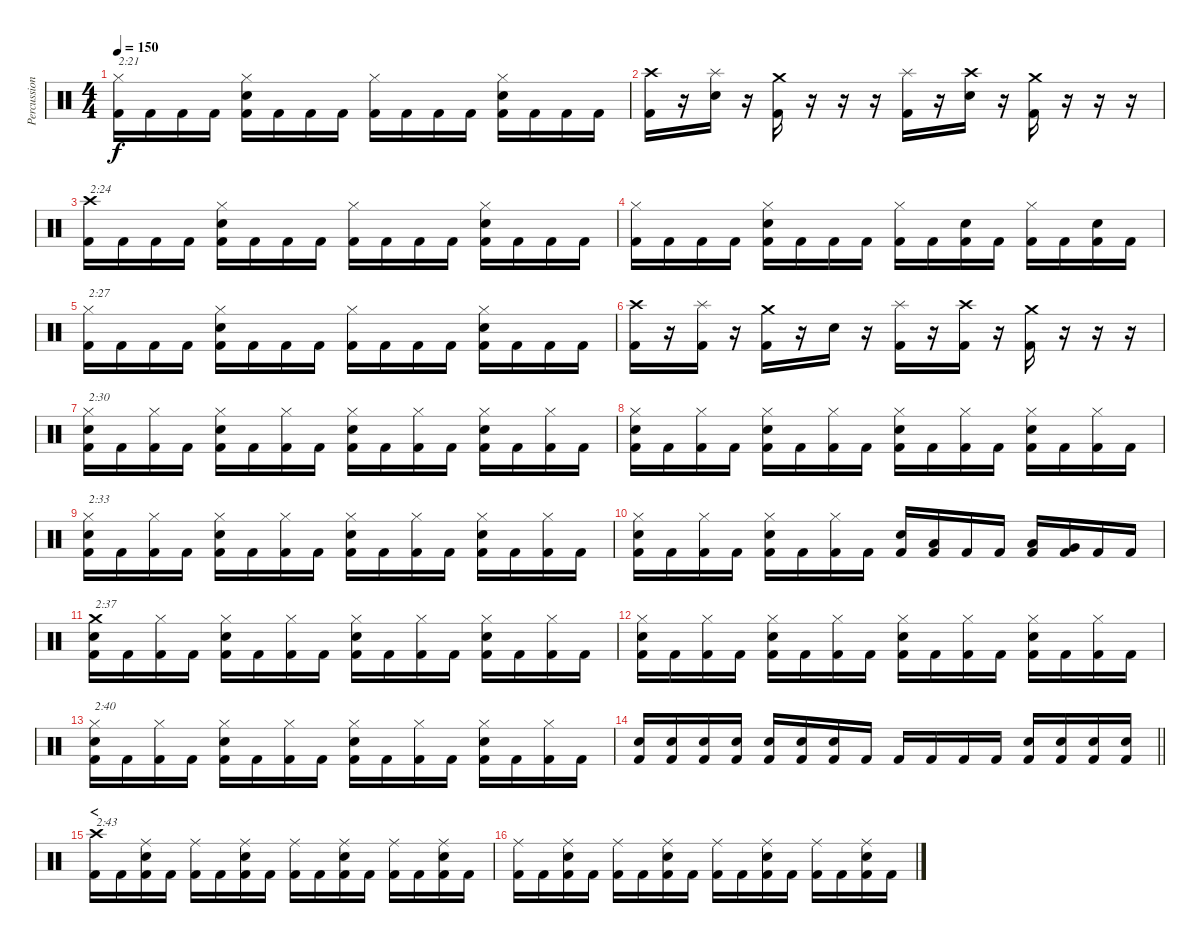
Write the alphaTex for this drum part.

\track ("Percussion" "Percussion") {instrument percussion}
\staff {score}
\articulation defaults
\ts (4 4)
\tempo 150
\clef neutral
\ks c
("Hi-Hat (closed)" "Kick (hit) 2").16{txt "2:21" dy f} "Kick (hit) 2".16 "Kick (hit) 2".16 "Kick (hit) 2".16 ("Hi-Hat (closed)" "Electric Snare (hit)" "Kick (hit) 2").16 "Kick (hit) 2".16 "Kick (hit) 2".16 "Kick (hit) 2".16 ("Hi-Hat (closed)" "Kick (hit) 2").16 "Kick (hit) 2".16 "Kick (hit) 2".16 "Kick (hit) 2".16 ("Hi-Hat (closed)" "Electric Snare (hit)" "Kick (hit) 2").16 "Kick (hit) 2".16 "Kick (hit) 2".16 "Kick (hit) 2".16 |
("Crash high (hit)" "Kick (hit) 2").16 r.16 ("Splash (hit)" "Electric Snare (hit)").16 r.16 ("Crash medium (hit)" "Kick (hit) 2").16 r.16 r.16 r.16 ("Splash (hit)" "Kick (hit) 2").16 r.16 ("Crash high (hit)" "Electric Snare (hit)").16 r.16 ("Crash medium (hit)" "Kick (hit) 2").16 r.16 r.16 r.16 |
("Crash high (hit)" "Kick (hit) 2").16{txt "2:24"} "Kick (hit) 2".16 "Kick (hit) 2".16 "Kick (hit) 2".16 ("Hi-Hat (closed)" "Electric Snare (hit)" "Kick (hit) 2").16 "Kick (hit) 2".16 "Kick (hit) 2".16 "Kick (hit) 2".16 ("Hi-Hat (closed)" "Kick (hit) 2").16 "Kick (hit) 2".16 "Kick (hit) 2".16 "Kick (hit) 2".16 ("Hi-Hat (closed)" "Electric Snare (hit)" "Kick (hit) 2").16 "Kick (hit) 2".16 "Kick (hit) 2".16 "Kick (hit) 2".16 |
("Hi-Hat (closed)" "Kick (hit) 2").16 "Kick (hit) 2".16 "Kick (hit) 2".16 "Kick (hit) 2".16 ("Hi-Hat (closed)" "Electric Snare (hit)" "Kick (hit) 2").16 "Kick (hit) 2".16 "Kick (hit) 2".16 "Kick (hit) 2".16 ("Hi-Hat (closed)" "Kick (hit) 2").16 "Kick (hit) 2".16 ("Electric Snare (hit)" "Kick (hit) 2").16 "Kick (hit) 2".16 ("Hi-Hat (closed)" "Kick (hit) 2").16 "Kick (hit) 2".16 ("Electric Snare (hit)" "Kick (hit) 2").16 "Kick (hit) 2".16 |
("Hi-Hat (closed)" "Kick (hit) 2").16{txt "2:27"} "Kick (hit) 2".16 "Kick (hit) 2".16 "Kick (hit) 2".16 ("Hi-Hat (closed)" "Electric Snare (hit)" "Kick (hit) 2").16 "Kick (hit) 2".16 "Kick (hit) 2".16 "Kick (hit) 2".16 ("Hi-Hat (closed)" "Kick (hit) 2").16 "Kick (hit) 2".16 "Kick (hit) 2".16 "Kick (hit) 2".16 ("Hi-Hat (closed)" "Electric Snare (hit)" "Kick (hit) 2").16 "Kick (hit) 2".16 "Kick (hit) 2".16 "Kick (hit) 2".16 |
("Crash high (hit)" "Kick (hit) 2").16 r.16 ("Splash (hit)" "Kick (hit) 2").16 r.16 ("Crash medium (hit)" "Kick (hit) 2").16 r.16 "Electric Snare (hit)".16 r.16 ("Splash (hit)" "Kick (hit) 2").16 r.16 ("Crash high (hit)" "Kick (hit) 2").16 r.16 ("Crash medium (hit)" "Kick (hit) 2").16 r.16 r.16 r.16 |
("Hi-Hat (closed)" "Electric Snare (hit)" "Kick (hit) 2").16{txt "2:30"} "Kick (hit) 2".16 ("Hi-Hat (closed)" "Kick (hit) 2").16 "Kick (hit) 2".16 ("Hi-Hat (closed)" "Electric Snare (hit)" "Kick (hit) 2").16 "Kick (hit) 2".16 ("Hi-Hat (closed)" "Kick (hit) 2").16 "Kick (hit) 2".16 ("Hi-Hat (closed)" "Electric Snare (hit)" "Kick (hit) 2").16 "Kick (hit) 2".16 ("Hi-Hat (closed)" "Kick (hit) 2").16 "Kick (hit) 2".16 ("Hi-Hat (closed)" "Electric Snare (hit)" "Kick (hit) 2").16 "Kick (hit) 2".16 ("Hi-Hat (closed)" "Kick (hit) 2").16 "Kick (hit) 2".16 |
("Hi-Hat (closed)" "Electric Snare (hit)" "Kick (hit) 2").16 "Kick (hit) 2".16 ("Hi-Hat (closed)" "Kick (hit) 2").16 "Kick (hit) 2".16 ("Hi-Hat (closed)" "Electric Snare (hit)" "Kick (hit) 2").16 "Kick (hit) 2".16 ("Hi-Hat (closed)" "Kick (hit) 2").16 "Kick (hit) 2".16 ("Hi-Hat (closed)" "Electric Snare (hit)" "Kick (hit) 2").16 "Kick (hit) 2".16 ("Hi-Hat (closed)" "Kick (hit) 2").16 "Kick (hit) 2".16 ("Hi-Hat (closed)" "Electric Snare (hit)" "Kick (hit) 2").16 "Kick (hit) 2".16 ("Hi-Hat (closed)" "Kick (hit) 2").16 "Kick (hit) 2".16 |
("Hi-Hat (closed)" "Electric Snare (hit)" "Kick (hit) 2").16{txt "2:33"} "Kick (hit) 2".16 ("Hi-Hat (closed)" "Kick (hit) 2").16 "Kick (hit) 2".16 ("Hi-Hat (closed)" "Electric Snare (hit)" "Kick (hit) 2").16 "Kick (hit) 2".16 ("Hi-Hat (closed)" "Kick (hit) 2").16 "Kick (hit) 2".16 ("Hi-Hat (closed)" "Electric Snare (hit)" "Kick (hit) 2").16 "Kick (hit) 2".16 ("Hi-Hat (closed)" "Kick (hit) 2").16 "Kick (hit) 2".16 ("Hi-Hat (closed)" "Electric Snare (hit)" "Kick (hit) 2").16 "Kick (hit) 2".16 ("Hi-Hat (closed)" "Kick (hit) 2").16 "Kick (hit) 2".16 |
("Hi-Hat (closed)" "Electric Snare (hit)" "Kick (hit) 2").16 "Kick (hit) 2".16 ("Hi-Hat (closed)" "Kick (hit) 2").16 "Kick (hit) 2".16 ("Hi-Hat (closed)" "Electric Snare (hit)" "Kick (hit) 2").16 "Kick (hit) 2".16 ("Hi-Hat (closed)" "Kick (hit) 2").16 "Kick (hit) 2".16 ("Electric Snare (hit)" "Kick (hit) 2").16 ("Low Tom (hit)" "Kick (hit) 2").16 "Kick (hit) 2".16 "Kick (hit) 2".16 ("Low Tom (hit)" "Kick (hit) 2").16 ("Very Low Tom (hit)" "Kick (hit) 2").16 "Kick (hit) 2".16 "Kick (hit) 2".16 |
("Crash medium (hit)" "Electric Snare (hit)" "Kick (hit) 2").16{txt "2:37"} "Kick (hit) 2".16 ("Hi-Hat (closed)" "Kick (hit) 2").16 "Kick (hit) 2".16 ("Hi-Hat (closed)" "Electric Snare (hit)" "Kick (hit) 2").16 "Kick (hit) 2".16 ("Hi-Hat (closed)" "Kick (hit) 2").16 "Kick (hit) 2".16 ("Hi-Hat (closed)" "Electric Snare (hit)" "Kick (hit) 2").16 "Kick (hit) 2".16 ("Hi-Hat (closed)" "Kick (hit) 2").16 "Kick (hit) 2".16 ("Hi-Hat (closed)" "Electric Snare (hit)" "Kick (hit) 2").16 "Kick (hit) 2".16 ("Hi-Hat (closed)" "Kick (hit) 2").16 "Kick (hit) 2".16 |
("Hi-Hat (closed)" "Electric Snare (hit)" "Kick (hit) 2").16 "Kick (hit) 2".16 ("Hi-Hat (closed)" "Kick (hit) 2").16 "Kick (hit) 2".16 ("Hi-Hat (closed)" "Electric Snare (hit)" "Kick (hit) 2").16 "Kick (hit) 2".16 ("Hi-Hat (closed)" "Kick (hit) 2").16 "Kick (hit) 2".16 ("Hi-Hat (closed)" "Electric Snare (hit)" "Kick (hit) 2").16 "Kick (hit) 2".16 ("Hi-Hat (closed)" "Kick (hit) 2").16 "Kick (hit) 2".16 ("Hi-Hat (closed)" "Electric Snare (hit)" "Kick (hit) 2").16 "Kick (hit) 2".16 ("Hi-Hat (closed)" "Kick (hit) 2").16 "Kick (hit) 2".16 |
("Hi-Hat (closed)" "Electric Snare (hit)" "Kick (hit) 2").16{txt "2:40"} "Kick (hit) 2".16 ("Hi-Hat (closed)" "Kick (hit) 2").16 "Kick (hit) 2".16 ("Hi-Hat (closed)" "Electric Snare (hit)" "Kick (hit) 2").16 "Kick (hit) 2".16 ("Hi-Hat (closed)" "Kick (hit) 2").16 "Kick (hit) 2".16 ("Hi-Hat (closed)" "Electric Snare (hit)" "Kick (hit) 2").16 "Kick (hit) 2".16 ("Hi-Hat (closed)" "Kick (hit) 2").16 "Kick (hit) 2".16 ("Hi-Hat (closed)" "Electric Snare (hit)" "Kick (hit) 2").16 "Kick (hit) 2".16 ("Hi-Hat (closed)" "Kick (hit) 2").16 "Kick (hit) 2".16 |
\barLineRight lightlight
("Electric Snare (hit)" "Kick (hit) 2").16 ("Electric Snare (hit)" "Kick (hit) 2").16 ("Electric Snare (hit)" "Kick (hit) 2").16 ("Electric Snare (hit)" "Kick (hit) 2").16 ("Electric Snare (hit)" "Kick (hit) 2").16 ("Electric Snare (hit)" "Kick (hit) 2").16 ("Electric Snare (hit)" "Kick (hit) 2").16 "Kick (hit) 2".16 "Kick (hit) 2".16 "Kick (hit) 2".16 "Kick (hit) 2".16 "Kick (hit) 2".16 ("Electric Snare (hit)" "Kick (hit) 2").16 ("Electric Snare (hit)" "Kick (hit) 2").16 ("Electric Snare (hit)" "Kick (hit) 2").16 ("Electric Snare (hit)" "Kick (hit) 2").16 |
\section ("" "<")
("Crash high (hit)" "Kick (hit) 2").16{txt "2:43"} "Kick (hit) 2".16 ("Ride (middle)" "Electric Snare (hit)" "Kick (hit) 2").16 "Kick (hit) 2".16 ("Ride (middle)" "Kick (hit) 2").16 "Kick (hit) 2".16 ("Ride (middle)" "Electric Snare (hit)" "Kick (hit) 2").16 "Kick (hit) 2".16 ("Ride (middle)" "Kick (hit) 2").16 "Kick (hit) 2".16 ("Ride (middle)" "Electric Snare (hit)" "Kick (hit) 2").16 "Kick (hit) 2".16 ("Ride (middle)" "Kick (hit) 2").16 "Kick (hit) 2".16 ("Ride (middle)" "Electric Snare (hit)" "Kick (hit) 2").16 "Kick (hit) 2".16 |
("Ride (middle)" "Kick (hit) 2").16 "Kick (hit) 2".16 ("Ride (middle)" "Electric Snare (hit)" "Kick (hit) 2").16 "Kick (hit) 2".16 ("Ride (middle)" "Kick (hit) 2").16 "Kick (hit) 2".16 ("Ride (middle)" "Electric Snare (hit)" "Kick (hit) 2").16 "Kick (hit) 2".16 ("Ride (middle)" "Kick (hit) 2").16 "Kick (hit) 2".16 ("Ride (middle)" "Electric Snare (hit)" "Kick (hit) 2").16 "Kick (hit) 2".16 ("Ride (middle)" "Kick (hit) 2").16 "Kick (hit) 2".16 ("Ride (middle)" "Electric Snare (hit)" "Kick (hit) 2").16 "Kick (hit) 2".16
